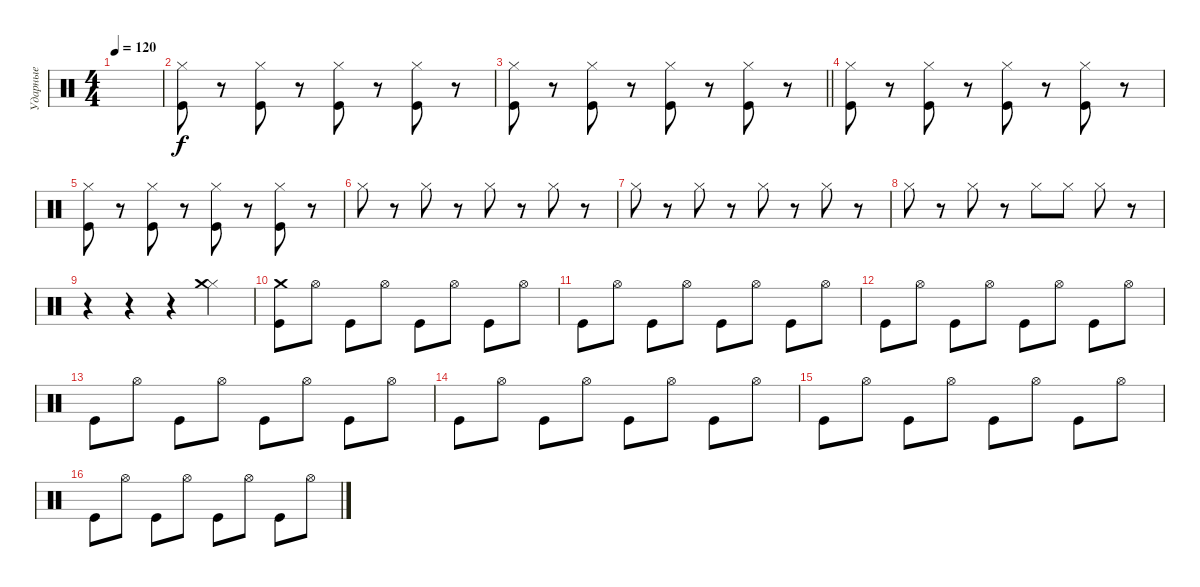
\track ("Ударные" "Ударные") {instrument percussion}
\staff {score}
\articulation defaults
\ts (4 4)
\tempo 120
\clef neutral
\ks c
|
("Kick (hit)" "Hi-Hat (closed)").8{dy f} r.8 ("Kick (hit)" "Hi-Hat (closed)").8 r.8 ("Kick (hit)" "Hi-Hat (closed)").8 r.8 ("Kick (hit)" "Hi-Hat (closed)").8 r.8 |
\barLineRight lightlight
("Kick (hit)" "Hi-Hat (closed)").8 r.8 ("Kick (hit)" "Hi-Hat (closed)").8 r.8 ("Kick (hit)" "Hi-Hat (closed)").8 r.8 ("Kick (hit)" "Hi-Hat (closed)").8 r.8 |
("Kick (hit)" "Hi-Hat (closed)").8 r.8 ("Kick (hit)" "Hi-Hat (closed)").8 r.8 ("Kick (hit)" "Hi-Hat (closed)").8 r.8 ("Kick (hit)" "Hi-Hat (closed)").8 r.8 |
("Kick (hit)" "Hi-Hat (closed)").8 r.8 ("Kick (hit)" "Hi-Hat (closed)").8 r.8 ("Kick (hit)" "Hi-Hat (closed)").8 r.8 ("Kick (hit)" "Hi-Hat (closed)").8 r.8 |
"Hi-Hat (closed)".8 r.8 "Hi-Hat (closed)".8 r.8 "Hi-Hat (closed)".8 r.8 "Hi-Hat (closed)".8 r.8 |
"Hi-Hat (closed)".8 r.8 "Hi-Hat (closed)".8 r.8 "Hi-Hat (closed)".8 r.8 "Hi-Hat (closed)".8 r.8 |
"Hi-Hat (closed)".8 r.8 "Hi-Hat (closed)".8 r.8 "Hi-Hat (closed)".8 "Hi-Hat (closed)".8 "Hi-Hat (closed)".8 r.8 |
r.4 r.4 r.4 ("Hi-Hat (closed)" "Crash medium (hit)").4 |
("Kick (hit)" "Crash medium (hit)").8 "Hi-Hat (open)".8 "Kick (hit)".8 "Hi-Hat (open)".8 "Kick (hit)".8 "Hi-Hat (open)".8 "Kick (hit)".8 "Hi-Hat (open)".8 |
"Kick (hit)".8 "Hi-Hat (open)".8 "Kick (hit)".8 "Hi-Hat (open)".8 "Kick (hit)".8 "Hi-Hat (open)".8 "Kick (hit)".8 "Hi-Hat (open)".8 |
"Kick (hit)".8 "Hi-Hat (open)".8 "Kick (hit)".8 "Hi-Hat (open)".8 "Kick (hit)".8 "Hi-Hat (open)".8 "Kick (hit)".8 "Hi-Hat (open)".8 |
"Kick (hit)".8 "Hi-Hat (open)".8 "Kick (hit)".8 "Hi-Hat (open)".8 "Kick (hit)".8 "Hi-Hat (open)".8 "Kick (hit)".8 "Hi-Hat (open)".8 |
"Kick (hit)".8 "Hi-Hat (open)".8 "Kick (hit)".8 "Hi-Hat (open)".8 "Kick (hit)".8 "Hi-Hat (open)".8 "Kick (hit)".8 "Hi-Hat (open)".8 |
"Kick (hit)".8 "Hi-Hat (open)".8 "Kick (hit)".8 "Hi-Hat (open)".8 "Kick (hit)".8 "Hi-Hat (open)".8 "Kick (hit)".8 "Hi-Hat (open)".8 |
"Kick (hit)".8 "Hi-Hat (open)".8 "Kick (hit)".8 "Hi-Hat (open)".8 "Kick (hit)".8 "Hi-Hat (open)".8 "Kick (hit)".8 "Hi-Hat (open)".8
